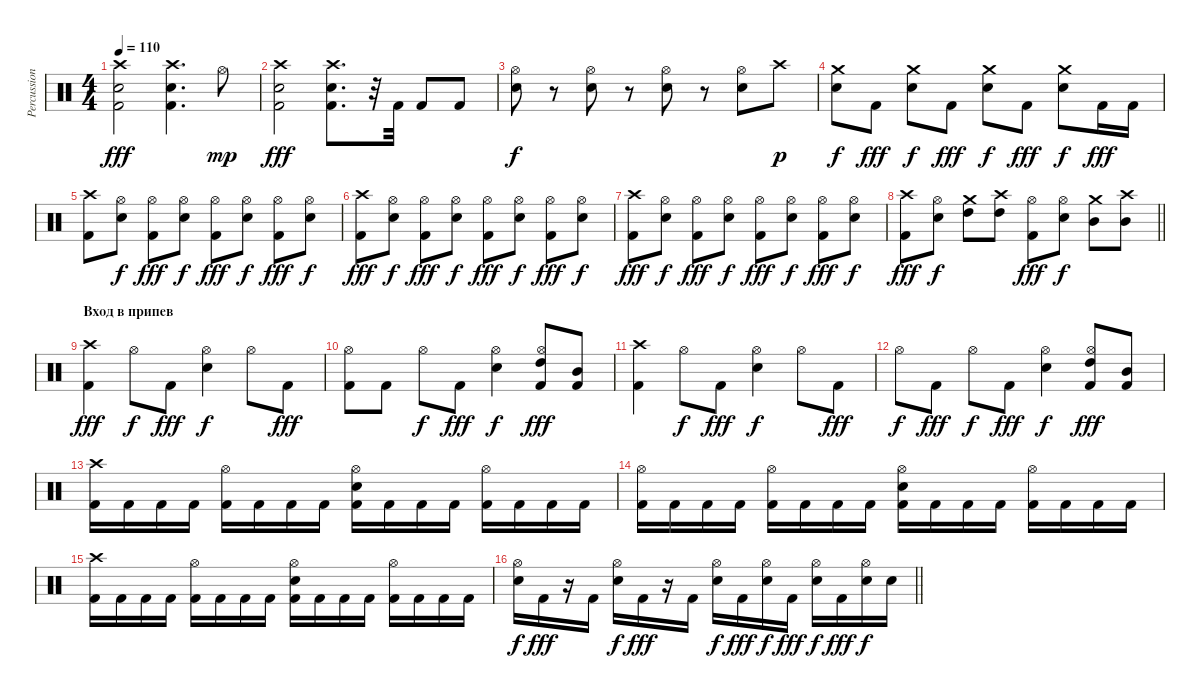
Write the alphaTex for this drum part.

\track ("Percussion" "Percussion") {instrument percussion}
\staff {score}
\articulation defaults
\ts (4 4)
\section ("" "")
\tempo 110
\clef neutral
\ks c
("Crash high (hit)" "Snare (hit) 2" "Kick (hit) 2").2{dy fff} ("Crash high (hit)" "Snare (hit) 2" "Kick (hit) 2").4{d} "Hi-Hat (open)".8{dy mp} |
("Crash high (hit)" "Snare (hit) 2" "Kick (hit) 2").2{dy fff} ("Crash high (hit)" "Snare (hit) 2" "Kick (hit) 2").8{d} r.32 "Kick (hit) 2".32 "Kick (hit) 2".8 "Kick (hit) 2".8 |
("Hi-Hat (open)" "Snare (hit) 2").8{dy f} r.8 ("Hi-Hat (open)" "Snare (hit) 2").8 r.8 ("Hi-Hat (open)" "Snare (hit) 2").8 r.8 ("Hi-Hat (open)" "Snare (hit) 2").8 "Crash high (hit)".8{dy p} |
("Crash medium (hit)" "Snare (hit) 2").8{dy f} "Kick (hit) 2".8{dy fff} ("Crash medium (hit)" "Snare (hit) 2").8{dy f} "Kick (hit) 2".8{dy fff} ("Crash medium (hit)" "Snare (hit) 2").8{dy f} "Kick (hit) 2".8{dy fff} ("Crash medium (hit)" "Snare (hit) 2").8{dy f} "Kick (hit) 2".16{dy fff} "Kick (hit) 2".16 |
("Crash high (hit)" "Kick (hit) 2").8 ("Hi-Hat (open)" "Snare (hit) 2").8{dy f} ("Hi-Hat (open)" "Kick (hit) 2").8{dy fff} ("Hi-Hat (open)" "Snare (hit) 2").8{dy f} ("Hi-Hat (open)" "Kick (hit) 2").8{dy fff} ("Hi-Hat (open)" "Snare (hit) 2").8{dy f} ("Hi-Hat (open)" "Kick (hit) 2").8{dy fff} ("Hi-Hat (open)" "Snare (hit) 2").8{dy f} |
("Crash high (hit)" "Kick (hit) 2").8{dy fff} ("Hi-Hat (open)" "Snare (hit) 2").8{dy f} ("Hi-Hat (open)" "Kick (hit) 2").8{dy fff} ("Hi-Hat (open)" "Snare (hit) 2").8{dy f} ("Hi-Hat (open)" "Kick (hit) 2").8{dy fff} ("Hi-Hat (open)" "Snare (hit) 2").8{dy f} ("Hi-Hat (open)" "Kick (hit) 2").8{dy fff} ("Hi-Hat (open)" "Snare (hit) 2").8{dy f} |
("Crash high (hit)" "Kick (hit) 2").8{dy fff} ("Hi-Hat (open)" "Snare (hit) 2").8{dy f} ("Hi-Hat (open)" "Kick (hit) 2").8{dy fff} ("Hi-Hat (open)" "Snare (hit) 2").8{dy f} ("Hi-Hat (open)" "Kick (hit) 2").8{dy fff} ("Hi-Hat (open)" "Snare (hit) 2").8{dy f} ("Hi-Hat (open)" "Kick (hit) 2").8{dy fff} ("Hi-Hat (open)" "Snare (hit) 2").8{dy f} |
\barLineRight lightlight
("Crash high (hit)" "Kick (hit) 2").8{dy fff} ("Hi-Hat (open)" "Snare (hit) 2").8{dy f} ("Crash medium (hit)" "High Tom (hit)").8 ("Crash high (hit)" "High Tom (hit)").8 ("Hi-Hat (open)" "Kick (hit) 2").8{dy fff} ("Hi-Hat (open)" "Snare (hit) 2").8{dy f} ("Crash medium (hit)" "Mid Tom (hit)").8 ("Crash high (hit)" "Mid Tom (hit)").8 |
\section ("" "Вход в припев")
("Crash high (hit)" "Kick (hit) 2").4{dy fff} "Hi-Hat (open)".8{dy f} "Kick (hit) 2".8{dy fff} ("Hi-Hat (open)" "Snare (hit) 2").4{dy f} "Hi-Hat (open)".8 "Kick (hit) 2".8{dy fff} |
("Hi-Hat (open)" "Kick (hit) 2").8 "Kick (hit) 2".8 "Hi-Hat (open)".8{dy f} "Kick (hit) 2".8{dy fff} ("Hi-Hat (open)" "Snare (hit) 2").4{dy f} ("Hi-Hat (open)" "High Tom (hit)" "Kick (hit) 2").8{dy fff} ("Mid Tom (hit)" "Kick (hit) 2").8 |
("Crash high (hit)" "Kick (hit) 2").4 "Hi-Hat (open)".8{dy f} "Kick (hit) 2".8{dy fff} ("Hi-Hat (open)" "Snare (hit) 2").4{dy f} "Hi-Hat (open)".8 "Kick (hit) 2".8{dy fff} |
"Hi-Hat (open)".8{dy f} "Kick (hit) 2".8{dy fff} "Hi-Hat (open)".8{dy f} "Kick (hit) 2".8{dy fff} ("Hi-Hat (open)" "Snare (hit) 2").4{dy f} ("Hi-Hat (open)" "High Tom (hit)" "Kick (hit) 2").8{dy fff} ("Mid Tom (hit)" "Kick (hit) 2").8 |
("Crash high (hit)" "Kick (hit) 2").16 "Kick (hit) 2".16 "Kick (hit) 2".16 "Kick (hit) 2".16 ("Hi-Hat (open)" "Kick (hit) 2").16 "Kick (hit) 2".16 "Kick (hit) 2".16 "Kick (hit) 2".16 ("Hi-Hat (open)" "Snare (hit) 2" "Kick (hit) 2").16 "Kick (hit) 2".16 "Kick (hit) 2".16 "Kick (hit) 2".16 ("Hi-Hat (open)" "Kick (hit) 2").16 "Kick (hit) 2".16 "Kick (hit) 2".16 "Kick (hit) 2".16 |
("Hi-Hat (open)" "Kick (hit) 2").16 "Kick (hit) 2".16 "Kick (hit) 2".16 "Kick (hit) 2".16 ("Hi-Hat (open)" "Kick (hit) 2").16 "Kick (hit) 2".16 "Kick (hit) 2".16 "Kick (hit) 2".16 ("Hi-Hat (open)" "Snare (hit) 2" "Kick (hit) 2").16 "Kick (hit) 2".16 "Kick (hit) 2".16 "Kick (hit) 2".16 ("Hi-Hat (open)" "Kick (hit) 2").16 "Kick (hit) 2".16 "Kick (hit) 2".16 "Kick (hit) 2".16 |
("Crash high (hit)" "Kick (hit) 2").16 "Kick (hit) 2".16 "Kick (hit) 2".16 "Kick (hit) 2".16 ("Hi-Hat (open)" "Kick (hit) 2").16 "Kick (hit) 2".16 "Kick (hit) 2".16 "Kick (hit) 2".16 ("Hi-Hat (open)" "Snare (hit) 2" "Kick (hit) 2").16 "Kick (hit) 2".16 "Kick (hit) 2".16 "Kick (hit) 2".16 ("Hi-Hat (open)" "Kick (hit) 2").16 "Kick (hit) 2".16 "Kick (hit) 2".16 "Kick (hit) 2".16 |
\barLineRight lightlight
("Hi-Hat (open)" "Snare (hit) 2").16{dy f} "Kick (hit) 2".16{dy fff} r.16 "Kick (hit) 2".16 ("Hi-Hat (open)" "Snare (hit) 2").16{dy f} "Kick (hit) 2".16{dy fff} r.16 "Kick (hit) 2".16 ("Hi-Hat (open)" "Snare (hit) 2").16{dy f} "Kick (hit) 2".16{dy fff} ("Hi-Hat (open)" "Snare (hit) 2").16{dy f} "Kick (hit) 2".16{dy fff} ("Hi-Hat (open)" "Snare (hit) 2").16{dy f} "Kick (hit) 2".16{dy fff} ("Hi-Hat (open)" "Snare (hit) 2").16{dy f} "Snare (hit) 2".16
